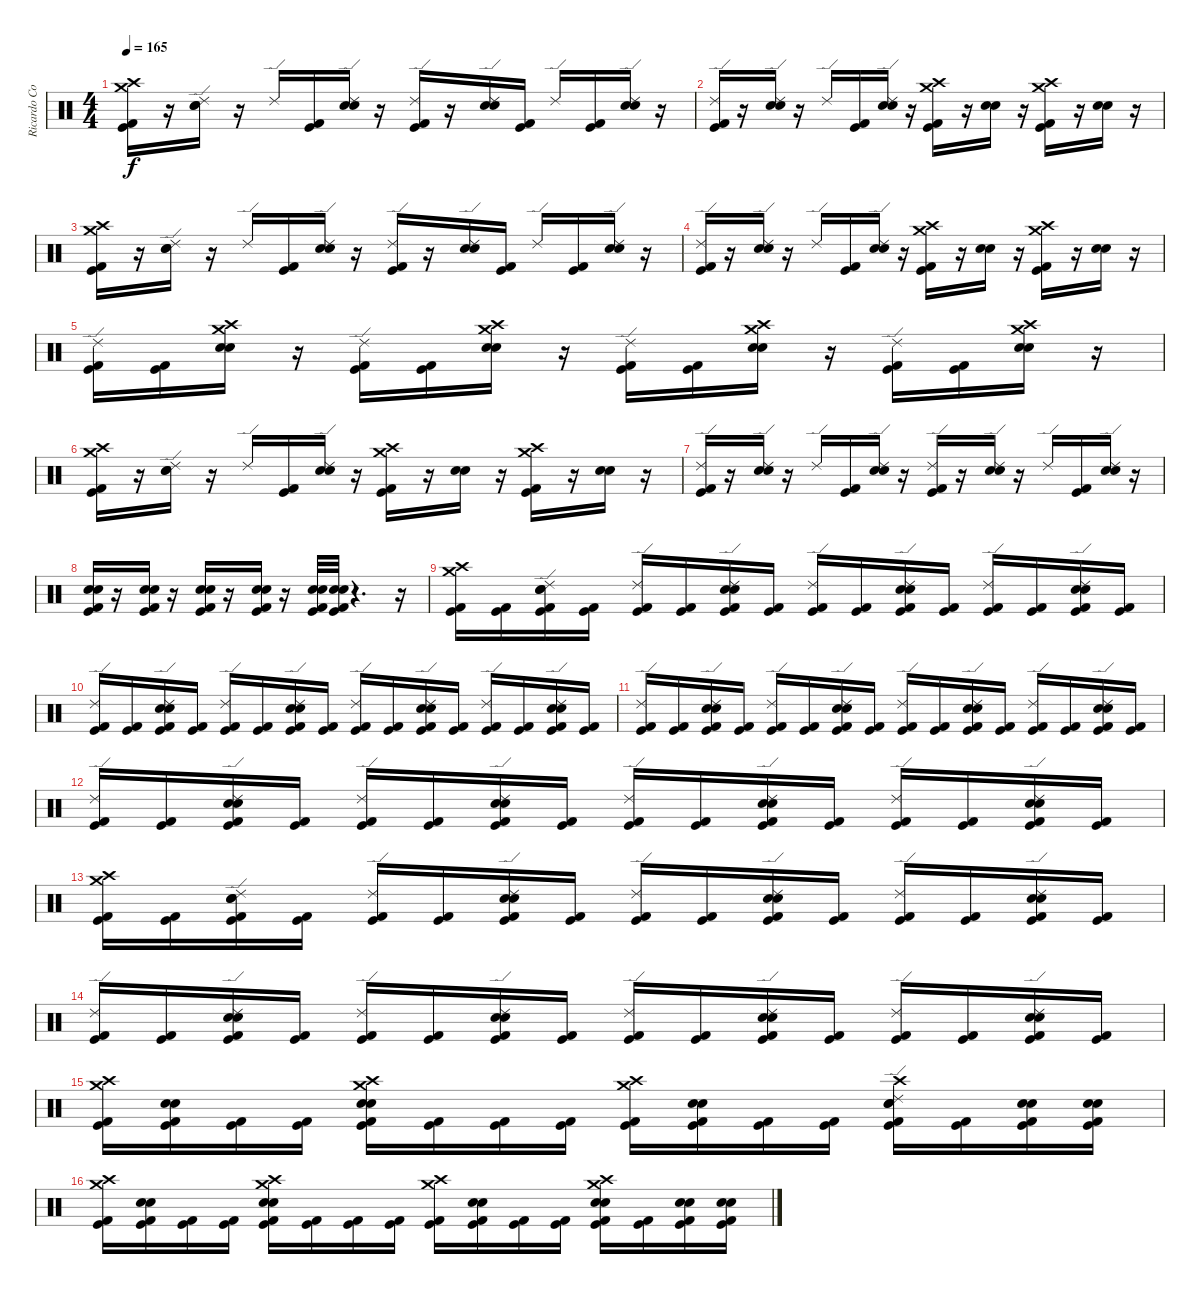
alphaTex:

\track ("Ricardo Confessori" "Ricardo Co") {instrument percussion}
\staff {score}
\articulation defaults
\ts (4 4)
\tempo 165
\clef neutral
\ks c
("Crash high (hit)" "Crash medium (hit)" "Kick (hit) 2" "Kick (hit)").16{dy f} r.16 ("Ride (edge) 2" "Electric Snare (hit)" "Snare (hit) 2").16 r.16 "Ride (edge) 2".16 ("Kick (hit) 2" "Kick (hit)").16 ("Ride (edge) 2" "Electric Snare (hit)" "Snare (hit) 2").16 r.16 ("Ride (edge) 2" "Kick (hit) 2" "Kick (hit)").16 r.16 ("Ride (edge) 2" "Electric Snare (hit)" "Snare (hit) 2").16 ("Kick (hit) 2" "Kick (hit)").16 "Ride (edge) 2".16 ("Kick (hit) 2" "Kick (hit)").16 ("Ride (edge) 2" "Electric Snare (hit)" "Snare (hit) 2").16 r.16 |
("Ride (edge) 2" "Kick (hit) 2" "Kick (hit)").16 r.16 ("Ride (edge) 2" "Electric Snare (hit)" "Snare (hit) 2").16 r.16 "Ride (edge) 2".16 ("Kick (hit) 2" "Kick (hit)").16 ("Ride (edge) 2" "Electric Snare (hit)" "Snare (hit) 2").16 r.16 ("Crash high (hit)" "Crash medium (hit)" "Kick (hit) 2" "Kick (hit)").16 r.16 ("Electric Snare (hit)" "Snare (hit) 2").16 r.16 ("Crash high (hit)" "Crash medium (hit)" "Kick (hit)" "Kick (hit) 2").16 r.16 ("Snare (hit) 2" "Electric Snare (hit)").16 r.16 |
("Crash medium (hit)" "Crash high (hit)" "Kick (hit) 2" "Kick (hit)").16 r.16 ("Ride (edge) 2" "Electric Snare (hit)" "Snare (hit) 2").16 r.16 "Ride (edge) 2".16 ("Kick (hit) 2" "Kick (hit)").16 ("Ride (edge) 2" "Electric Snare (hit)" "Snare (hit) 2").16 r.16 ("Ride (edge) 2" "Kick (hit) 2" "Kick (hit)").16 r.16 ("Ride (edge) 2" "Electric Snare (hit)" "Snare (hit) 2").16 ("Kick (hit) 2" "Kick (hit)").16 "Ride (edge) 2".16 ("Kick (hit) 2" "Kick (hit)").16 ("Ride (edge) 2" "Electric Snare (hit)" "Snare (hit) 2").16 r.16 |
("Ride (edge) 2" "Kick (hit) 2" "Kick (hit)").16 r.16 ("Ride (edge) 2" "Electric Snare (hit)" "Snare (hit) 2").16 r.16 "Ride (edge) 2".16 ("Kick (hit) 2" "Kick (hit)").16 ("Ride (edge) 2" "Electric Snare (hit)" "Snare (hit) 2").16 r.16 ("Crash high (hit)" "Crash medium (hit)" "Kick (hit) 2" "Kick (hit)").16 r.16 ("Electric Snare (hit)" "Snare (hit) 2").16 r.16 ("Crash high (hit)" "Crash medium (hit)" "Kick (hit)" "Kick (hit) 2").16 r.16 ("Electric Snare (hit)" "Snare (hit) 2").16 r.16 |
("Ride (edge) 2" "Kick (hit) 2" "Kick (hit)").16 ("Kick (hit) 2" "Kick (hit)").16 ("Crash high (hit)" "Crash medium (hit)" "Electric Snare (hit)" "Snare (hit) 2").16 r.16 ("Ride (edge) 2" "Kick (hit) 2" "Kick (hit)").16 ("Kick (hit) 2" "Kick (hit)").16 ("Crash high (hit)" "Crash medium (hit)" "Electric Snare (hit)" "Snare (hit) 2").16 r.16 ("Ride (edge) 2" "Kick (hit) 2" "Kick (hit)").16 ("Kick (hit) 2" "Kick (hit)").16 ("Crash high (hit)" "Crash medium (hit)" "Electric Snare (hit)" "Snare (hit) 2").16 r.16 ("Ride (edge) 2" "Kick (hit) 2" "Kick (hit)").16 ("Kick (hit) 2" "Kick (hit)").16 ("Crash medium (hit)" "Crash high (hit)" "Electric Snare (hit)" "Snare (hit) 2").16 r.16 |
("Crash medium (hit)" "Crash high (hit)" "Kick (hit) 2" "Kick (hit)").16 r.16 ("Ride (edge) 2" "Electric Snare (hit)" "Snare (hit) 2").16 r.16 "Ride (edge) 2".16 ("Kick (hit) 2" "Kick (hit)").16 ("Ride (edge) 2" "Electric Snare (hit)" "Snare (hit) 2").16 r.16 ("Crash high (hit)" "Crash medium (hit)" "Kick (hit) 2" "Kick (hit)").16 r.16 ("Electric Snare (hit)" "Snare (hit) 2").16 r.16 ("Crash high (hit)" "Crash medium (hit)" "Kick (hit) 2" "Kick (hit)").16 r.16 ("Electric Snare (hit)" "Snare (hit) 2").16 r.16 |
("Ride (edge) 2" "Kick (hit) 2" "Kick (hit)").16 r.16 ("Ride (edge) 2" "Electric Snare (hit)" "Snare (hit) 2").16 r.16 "Ride (edge) 2".16 ("Kick (hit)" "Kick (hit) 2").16 ("Ride (edge) 2" "Electric Snare (hit)" "Snare (hit) 2").16 r.16 ("Ride (edge) 2" "Kick (hit) 2" "Kick (hit)").16 r.16 ("Ride (edge) 2" "Electric Snare (hit)" "Snare (hit) 2").16 r.16 "Ride (edge) 2".16 ("Kick (hit)" "Kick (hit) 2").16 ("Ride (edge) 2" "Electric Snare (hit)" "Snare (hit) 2").16 r.16 |
("Electric Snare (hit)" "Snare (hit) 2" "Kick (hit) 2" "Kick (hit)").16 r.16 ("Electric Snare (hit)" "Snare (hit) 2" "Kick (hit) 2" "Kick (hit)").16 r.16 ("Electric Snare (hit)" "Snare (hit) 2" "Kick (hit) 2" "Kick (hit)").16 r.16 ("Electric Snare (hit)" "Snare (hit) 2" "Kick (hit) 2" "Kick (hit)").16 r.16 ("Kick (hit) 2" "Kick (hit)" "Electric Snare (hit)" "Snare (hit) 2").32 ("Kick (hit) 2" "Kick (hit)" "Electric Snare (hit)" "Snare (hit) 2").32 r.4{d} r.16 |
("Crash high (hit)" "Crash medium (hit)" "Kick (hit) 2" "Kick (hit)").16 ("Kick (hit) 2" "Kick (hit)").16 ("Ride (edge) 2" "Snare (hit) 2" "Electric Snare (hit)" "Kick (hit) 2" "Kick (hit)").16 ("Kick (hit) 2" "Kick (hit)").16 ("Ride (edge) 2" "Kick (hit) 2" "Kick (hit)").16 ("Kick (hit) 2" "Kick (hit)").16 ("Ride (edge) 2" "Electric Snare (hit)" "Snare (hit) 2" "Kick (hit) 2" "Kick (hit)").16 ("Kick (hit) 2" "Kick (hit)").16 ("Ride (edge) 2" "Kick (hit) 2" "Kick (hit)").16 ("Kick (hit) 2" "Kick (hit)").16 ("Ride (edge) 2" "Snare (hit) 2" "Electric Snare (hit)" "Kick (hit) 2" "Kick (hit)").16 ("Kick (hit) 2" "Kick (hit)").16 ("Ride (edge) 2" "Kick (hit) 2" "Kick (hit)").16 ("Kick (hit) 2" "Kick (hit)").16 ("Ride (edge) 2" "Electric Snare (hit)" "Snare (hit) 2" "Kick (hit) 2" "Kick (hit)").16 ("Kick (hit) 2" "Kick (hit)").16 |
("Ride (edge) 2" "Kick (hit) 2" "Kick (hit)").16 ("Kick (hit) 2" "Kick (hit)").16 ("Ride (edge) 2" "Snare (hit) 2" "Electric Snare (hit)" "Kick (hit) 2" "Kick (hit)").16 ("Kick (hit) 2" "Kick (hit)").16 ("Ride (edge) 2" "Kick (hit) 2" "Kick (hit)").16 ("Kick (hit) 2" "Kick (hit)").16 ("Ride (edge) 2" "Electric Snare (hit)" "Snare (hit) 2" "Kick (hit) 2" "Kick (hit)").16 ("Kick (hit) 2" "Kick (hit)").16 ("Ride (edge) 2" "Kick (hit) 2" "Kick (hit)").16 ("Kick (hit) 2" "Kick (hit)").16 ("Ride (edge) 2" "Snare (hit) 2" "Electric Snare (hit)" "Kick (hit) 2" "Kick (hit)").16 ("Kick (hit) 2" "Kick (hit)").16 ("Ride (edge) 2" "Kick (hit) 2" "Kick (hit)").16 ("Kick (hit) 2" "Kick (hit)").16 ("Ride (edge) 2" "Electric Snare (hit)" "Snare (hit) 2" "Kick (hit) 2" "Kick (hit)").16 ("Kick (hit) 2" "Kick (hit)").16 |
("Ride (edge) 2" "Kick (hit) 2" "Kick (hit)").16 ("Kick (hit) 2" "Kick (hit)").16 ("Ride (edge) 2" "Snare (hit) 2" "Electric Snare (hit)" "Kick (hit) 2" "Kick (hit)").16 ("Kick (hit) 2" "Kick (hit)").16 ("Ride (edge) 2" "Kick (hit) 2" "Kick (hit)").16 ("Kick (hit) 2" "Kick (hit)").16 ("Ride (edge) 2" "Electric Snare (hit)" "Snare (hit) 2" "Kick (hit) 2" "Kick (hit)").16 ("Kick (hit) 2" "Kick (hit)").16 ("Ride (edge) 2" "Kick (hit) 2" "Kick (hit)").16 ("Kick (hit) 2" "Kick (hit)").16 ("Ride (edge) 2" "Snare (hit) 2" "Electric Snare (hit)" "Kick (hit) 2" "Kick (hit)").16 ("Kick (hit) 2" "Kick (hit)").16 ("Ride (edge) 2" "Kick (hit) 2" "Kick (hit)").16 ("Kick (hit) 2" "Kick (hit)").16 ("Ride (edge) 2" "Electric Snare (hit)" "Snare (hit) 2" "Kick (hit) 2" "Kick (hit)").16 ("Kick (hit) 2" "Kick (hit)").16 |
("Ride (edge) 2" "Kick (hit) 2" "Kick (hit)").16 ("Kick (hit) 2" "Kick (hit)").16 ("Ride (edge) 2" "Snare (hit) 2" "Electric Snare (hit)" "Kick (hit) 2" "Kick (hit)").16 ("Kick (hit) 2" "Kick (hit)").16 ("Ride (edge) 2" "Kick (hit) 2" "Kick (hit)").16 ("Kick (hit) 2" "Kick (hit)").16 ("Ride (edge) 2" "Electric Snare (hit)" "Snare (hit) 2" "Kick (hit) 2" "Kick (hit)").16 ("Kick (hit) 2" "Kick (hit)").16 ("Ride (edge) 2" "Kick (hit) 2" "Kick (hit)").16 ("Kick (hit) 2" "Kick (hit)").16 ("Ride (edge) 2" "Snare (hit) 2" "Electric Snare (hit)" "Kick (hit) 2" "Kick (hit)").16 ("Kick (hit) 2" "Kick (hit)").16 ("Ride (edge) 2" "Kick (hit) 2" "Kick (hit)").16 ("Kick (hit) 2" "Kick (hit)").16 ("Ride (edge) 2" "Electric Snare (hit)" "Snare (hit) 2" "Kick (hit) 2" "Kick (hit)").16 ("Kick (hit) 2" "Kick (hit)").16 |
("Crash high (hit)" "Crash medium (hit)" "Kick (hit) 2" "Kick (hit)").16 ("Kick (hit) 2" "Kick (hit)").16 ("Ride (edge) 2" "Snare (hit) 2" "Electric Snare (hit)" "Kick (hit) 2" "Kick (hit)").16 ("Kick (hit) 2" "Kick (hit)").16 ("Ride (edge) 2" "Kick (hit) 2" "Kick (hit)").16 ("Kick (hit) 2" "Kick (hit)").16 ("Ride (edge) 2" "Electric Snare (hit)" "Snare (hit) 2" "Kick (hit) 2" "Kick (hit)").16 ("Kick (hit) 2" "Kick (hit)").16 ("Ride (edge) 2" "Kick (hit) 2" "Kick (hit)").16 ("Kick (hit) 2" "Kick (hit)").16 ("Ride (edge) 2" "Snare (hit) 2" "Electric Snare (hit)" "Kick (hit) 2" "Kick (hit)").16 ("Kick (hit) 2" "Kick (hit)").16 ("Ride (edge) 2" "Kick (hit) 2" "Kick (hit)").16 ("Kick (hit) 2" "Kick (hit)").16 ("Ride (edge) 2" "Electric Snare (hit)" "Snare (hit) 2" "Kick (hit) 2" "Kick (hit)").16 ("Kick (hit) 2" "Kick (hit)").16 |
("Ride (edge) 2" "Kick (hit) 2" "Kick (hit)").16 ("Kick (hit) 2" "Kick (hit)").16 ("Ride (edge) 2" "Snare (hit) 2" "Electric Snare (hit)" "Kick (hit) 2" "Kick (hit)").16 ("Kick (hit) 2" "Kick (hit)").16 ("Ride (edge) 2" "Kick (hit) 2" "Kick (hit)").16 ("Kick (hit) 2" "Kick (hit)").16 ("Ride (edge) 2" "Electric Snare (hit)" "Snare (hit) 2" "Kick (hit) 2" "Kick (hit)").16 ("Kick (hit) 2" "Kick (hit)").16 ("Ride (edge) 2" "Kick (hit) 2" "Kick (hit)").16 ("Kick (hit) 2" "Kick (hit)").16 ("Ride (edge) 2" "Snare (hit) 2" "Electric Snare (hit)" "Kick (hit) 2" "Kick (hit)").16 ("Kick (hit) 2" "Kick (hit)").16 ("Ride (edge) 2" "Kick (hit) 2" "Kick (hit)").16 ("Kick (hit) 2" "Kick (hit)").16 ("Ride (edge) 2" "Electric Snare (hit)" "Snare (hit) 2" "Kick (hit) 2" "Kick (hit)").16 ("Kick (hit) 2" "Kick (hit)").16 |
("Crash high (hit)" "Crash medium (hit)" "Kick (hit) 2" "Kick (hit)").16 ("Electric Snare (hit)" "Snare (hit) 2" "Kick (hit) 2" "Kick (hit)").16 ("Kick (hit) 2" "Kick (hit)").16 ("Kick (hit) 2" "Kick (hit)").16 ("Electric Snare (hit)" "Snare (hit) 2" "Crash high (hit)" "Crash medium (hit)" "Kick (hit) 2" "Kick (hit)").16 ("Kick (hit) 2" "Kick (hit)").16 ("Kick (hit) 2" "Kick (hit)").16 ("Kick (hit) 2" "Kick (hit)").16 ("Crash high (hit)" "Crash medium (hit)" "Kick (hit) 2" "Kick (hit)").16 ("Electric Snare (hit)" "Snare (hit) 2" "Kick (hit) 2" "Kick (hit)").16 ("Kick (hit) 2" "Kick (hit)").16 ("Kick (hit) 2" "Kick (hit)").16 ("Electric Snare (hit)" "Crash high (hit)" "Snare (hit) 2" "Ride (edge) 2" "Kick (hit) 2" "Kick (hit)").16 ("Kick (hit) 2" "Kick (hit)").16 ("Electric Snare (hit)" "Snare (hit) 2" "Kick (hit) 2" "Kick (hit)").16 ("Electric Snare (hit)" "Snare (hit) 2" "Kick (hit) 2" "Kick (hit)").16 |
("Crash high (hit)" "Crash medium (hit)" "Kick (hit) 2" "Kick (hit)").16 ("Electric Snare (hit)" "Snare (hit) 2" "Kick (hit) 2" "Kick (hit)").16 ("Kick (hit) 2" "Kick (hit)").16 ("Kick (hit) 2" "Kick (hit)").16 ("Crash high (hit)" "Electric Snare (hit)" "Snare (hit) 2" "Crash medium (hit)" "Kick (hit) 2" "Kick (hit)").16 ("Kick (hit) 2" "Kick (hit)").16 ("Kick (hit) 2" "Kick (hit)").16 ("Kick (hit) 2" "Kick (hit)").16 ("Crash high (hit)" "Crash medium (hit)" "Kick (hit) 2" "Kick (hit)").16 ("Electric Snare (hit)" "Snare (hit) 2" "Kick (hit) 2" "Kick (hit)").16 ("Kick (hit) 2" "Kick (hit)").16 ("Kick (hit) 2" "Kick (hit)").16 ("Electric Snare (hit)" "Snare (hit) 2" "Crash high (hit)" "Crash medium (hit)" "Kick (hit) 2" "Kick (hit)").16 ("Kick (hit) 2" "Kick (hit)").16 ("Electric Snare (hit)" "Snare (hit) 2" "Kick (hit) 2" "Kick (hit)").16 ("Electric Snare (hit)" "Snare (hit) 2" "Kick (hit) 2" "Kick (hit)").16
